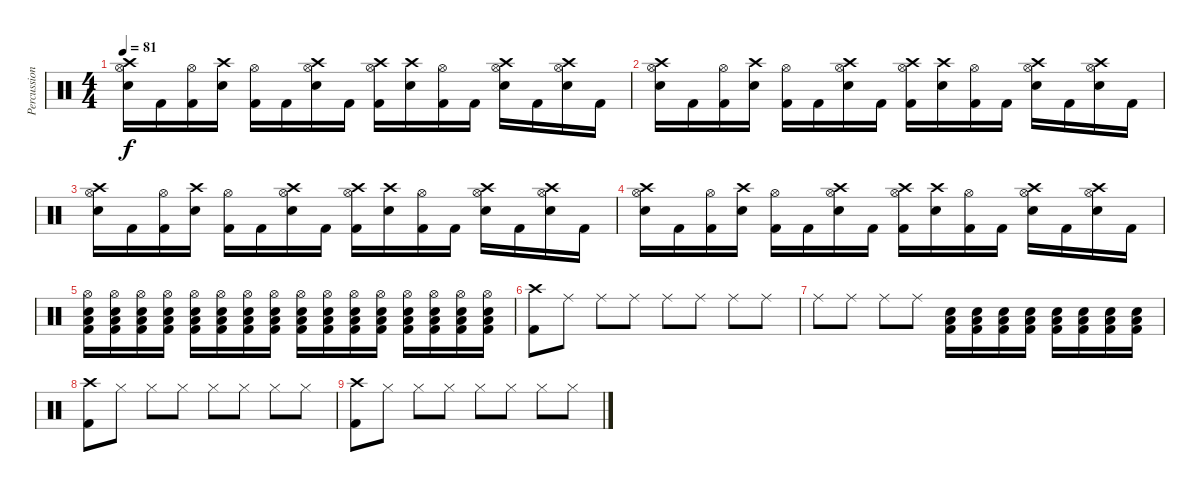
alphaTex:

\track ("Percussion" "Percussion") {instrument percussion}
\staff {score}
\articulation defaults
\ts (4 4)
\tempo 81
\clef neutral
\ks c
("Crash high (hit)" "Hi-Hat (open)" "Snare (hit) 2").16{dy f} "Kick (hit) 2".16 ("Hi-Hat (open)" "Kick (hit) 2").16 ("Crash high (hit)" "Snare (hit) 2").16 ("Hi-Hat (open)" "Kick (hit) 2").16 "Kick (hit) 2".16 ("Crash high (hit)" "Hi-Hat (open)" "Snare (hit) 2").16 "Kick (hit) 2".16 ("Crash high (hit)" "Hi-Hat (open)" "Kick (hit) 2").16 ("Crash high (hit)" "Snare (hit) 2").16 ("Hi-Hat (open)" "Kick (hit) 2").16 "Kick (hit) 2".16 ("Crash high (hit)" "Hi-Hat (open)" "Snare (hit) 2").16 "Kick (hit) 2".16 ("Crash high (hit)" "Hi-Hat (open)" "Snare (hit) 2").16 "Kick (hit) 2".16 |
("Crash high (hit)" "Hi-Hat (open)" "Snare (hit) 2").16 "Kick (hit) 2".16 ("Hi-Hat (open)" "Kick (hit) 2").16 ("Crash high (hit)" "Snare (hit) 2").16 ("Hi-Hat (open)" "Kick (hit) 2").16 "Kick (hit) 2".16 ("Crash high (hit)" "Hi-Hat (open)" "Snare (hit) 2").16 "Kick (hit) 2".16 ("Crash high (hit)" "Hi-Hat (open)" "Kick (hit) 2").16 ("Crash high (hit)" "Snare (hit) 2").16 ("Hi-Hat (open)" "Kick (hit) 2").16 "Kick (hit) 2".16 ("Crash high (hit)" "Hi-Hat (open)" "Snare (hit) 2").16 "Kick (hit) 2".16 ("Crash high (hit)" "Hi-Hat (open)" "Snare (hit) 2").16 "Kick (hit) 2".16 |
("Crash high (hit)" "Hi-Hat (open)" "Snare (hit) 2").16 "Kick (hit) 2".16 ("Hi-Hat (open)" "Kick (hit) 2").16 ("Crash high (hit)" "Snare (hit) 2").16 ("Hi-Hat (open)" "Kick (hit) 2").16 "Kick (hit) 2".16 ("Crash high (hit)" "Hi-Hat (open)" "Snare (hit) 2").16 "Kick (hit) 2".16 ("Crash high (hit)" "Hi-Hat (open)" "Kick (hit) 2").16 ("Crash high (hit)" "Snare (hit) 2").16 ("Hi-Hat (open)" "Kick (hit) 2").16 "Kick (hit) 2".16 ("Crash high (hit)" "Hi-Hat (open)" "Snare (hit) 2").16 "Kick (hit) 2".16 ("Crash high (hit)" "Hi-Hat (open)" "Snare (hit) 2").16 "Kick (hit) 2".16 |
("Crash high (hit)" "Hi-Hat (open)" "Snare (hit) 2").16 "Kick (hit) 2".16 ("Hi-Hat (open)" "Kick (hit) 2").16 ("Crash high (hit)" "Snare (hit) 2").16 ("Hi-Hat (open)" "Kick (hit) 2").16 "Kick (hit) 2".16 ("Crash high (hit)" "Hi-Hat (open)" "Snare (hit) 2").16 "Kick (hit) 2".16 ("Crash high (hit)" "Hi-Hat (open)" "Kick (hit) 2").16 ("Crash high (hit)" "Snare (hit) 2").16 ("Hi-Hat (open)" "Kick (hit) 2").16 "Kick (hit) 2".16 ("Crash high (hit)" "Hi-Hat (open)" "Snare (hit) 2").16 "Kick (hit) 2".16 ("Crash high (hit)" "Hi-Hat (open)" "Snare (hit) 2").16 "Kick (hit) 2".16 |
("Hi-Hat (open)" "Snare (hit) 2" "Low Floor Tom (hit)" "Kick (hit) 2").16 ("Hi-Hat (open)" "Snare (hit) 2" "Low Floor Tom (hit)" "Kick (hit) 2").16 ("Hi-Hat (open)" "Snare (hit) 2" "Low Floor Tom (hit)" "Kick (hit) 2").16 ("Hi-Hat (open)" "Snare (hit) 2" "Low Floor Tom (hit)" "Kick (hit) 2").16 ("Hi-Hat (open)" "Snare (hit) 2" "Low Floor Tom (hit)" "Kick (hit) 2").16 ("Hi-Hat (open)" "Snare (hit) 2" "Low Floor Tom (hit)" "Kick (hit) 2").16 ("Hi-Hat (open)" "Snare (hit) 2" "Low Floor Tom (hit)" "Kick (hit) 2").16 ("Hi-Hat (open)" "Snare (hit) 2" "Low Floor Tom (hit)" "Kick (hit) 2").16 ("Hi-Hat (open)" "Snare (hit) 2" "Low Floor Tom (hit)" "Kick (hit) 2").16 ("Hi-Hat (open)" "Snare (hit) 2" "Low Floor Tom (hit)" "Kick (hit) 2").16 ("Hi-Hat (open)" "Snare (hit) 2" "Low Floor Tom (hit)" "Kick (hit) 2").16 ("Hi-Hat (open)" "Snare (hit) 2" "Low Floor Tom (hit)" "Kick (hit) 2").16 ("Hi-Hat (open)" "Snare (hit) 2" "Low Floor Tom (hit)" "Kick (hit) 2").16 ("Hi-Hat (open)" "Snare (hit) 2" "Low Floor Tom (hit)" "Kick (hit) 2").16 ("Hi-Hat (open)" "Snare (hit) 2" "Low Floor Tom (hit)" "Kick (hit) 2").16 ("Hi-Hat (open)" "Snare (hit) 2" "Low Floor Tom (hit)" "Kick (hit) 2").16 |
("Crash high (hit)" "Kick (hit) 2").8 "Ride (middle)".8 "Ride (middle)".8 "Ride (middle)".8 "Ride (middle)".8 "Ride (middle)".8 "Ride (middle)".8 "Ride (middle)".8 |
"Ride (middle)".8 "Ride (middle)".8 "Ride (middle)".8 "Ride (middle)".8 ("Snare (hit) 2" "Low Floor Tom (hit)" "Kick (hit) 2").16 ("Snare (hit) 2" "Low Floor Tom (hit)" "Kick (hit) 2").16 ("Snare (hit) 2" "Low Floor Tom (hit)" "Kick (hit) 2").16 ("Snare (hit) 2" "Low Floor Tom (hit)" "Kick (hit) 2").16 ("Snare (hit) 2" "Low Floor Tom (hit)" "Kick (hit) 2").16 ("Snare (hit) 2" "Low Floor Tom (hit)" "Kick (hit) 2").16 ("Snare (hit) 2" "Low Floor Tom (hit)" "Kick (hit) 2").16 ("Snare (hit) 2" "Low Floor Tom (hit)" "Kick (hit) 2").16 |
("Crash high (hit)" "Kick (hit) 2").8 "Hi-Hat (closed)".8 "Hi-Hat (closed)".8 "Hi-Hat (closed)".8 "Hi-Hat (closed)".8 "Hi-Hat (closed)".8 "Hi-Hat (closed)".8 "Hi-Hat (closed)".8 |
("Crash high (hit)" "Kick (hit) 2").8 "Hi-Hat (closed)".8 "Hi-Hat (closed)".8 "Hi-Hat (closed)".8 "Hi-Hat (closed)".8 "Hi-Hat (closed)".8 "Hi-Hat (closed)".8 "Hi-Hat (closed)".8
